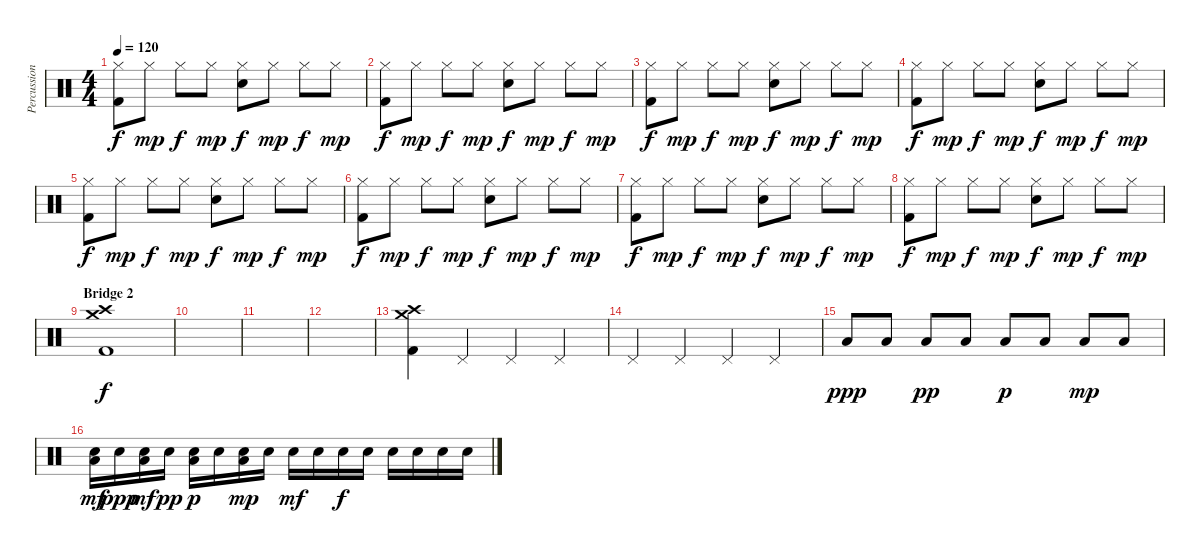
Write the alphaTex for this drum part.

\track ("Percussion" "Percussion") {instrument percussion}
\staff {score}
\articulation defaults
\ts (4 4)
\tempo 120
\clef neutral
\ks c
("Kick (hit) 2" "Hi-Hat (closed)").8{dy f} "Hi-Hat (closed)".8{dy mp} "Hi-Hat (closed)".8{dy f} "Hi-Hat (closed)".8{dy mp} ("Snare (hit) 2" "Hi-Hat (closed)").8{dy f} "Hi-Hat (closed)".8{dy mp} "Hi-Hat (closed)".8{dy f} "Hi-Hat (closed)".8{dy mp} |
("Kick (hit) 2" "Hi-Hat (closed)").8{dy f} "Hi-Hat (closed)".8{dy mp} "Hi-Hat (closed)".8{dy f} "Hi-Hat (closed)".8{dy mp} ("Snare (hit) 2" "Hi-Hat (closed)").8{dy f} "Hi-Hat (closed)".8{dy mp} "Hi-Hat (closed)".8{dy f} "Hi-Hat (closed)".8{dy mp} |
("Kick (hit) 2" "Hi-Hat (closed)").8{dy f} "Hi-Hat (closed)".8{dy mp} "Hi-Hat (closed)".8{dy f} "Hi-Hat (closed)".8{dy mp} ("Snare (hit) 2" "Hi-Hat (closed)").8{dy f} "Hi-Hat (closed)".8{dy mp} "Hi-Hat (closed)".8{dy f} "Hi-Hat (closed)".8{dy mp} |
("Kick (hit) 2" "Hi-Hat (closed)").8{dy f} "Hi-Hat (closed)".8{dy mp} "Hi-Hat (closed)".8{dy f} "Hi-Hat (closed)".8{dy mp} ("Snare (hit) 2" "Hi-Hat (closed)").8{dy f} "Hi-Hat (closed)".8{dy mp} "Hi-Hat (closed)".8{dy f} "Hi-Hat (closed)".8{dy mp} |
("Kick (hit) 2" "Hi-Hat (closed)").8{dy f} "Hi-Hat (closed)".8{dy mp} "Hi-Hat (closed)".8{dy f} "Hi-Hat (closed)".8{dy mp} ("Snare (hit) 2" "Hi-Hat (closed)").8{dy f} "Hi-Hat (closed)".8{dy mp} "Hi-Hat (closed)".8{dy f} "Hi-Hat (closed)".8{dy mp} |
("Kick (hit) 2" "Hi-Hat (closed)").8{dy f} "Hi-Hat (closed)".8{dy mp} "Hi-Hat (closed)".8{dy f} "Hi-Hat (closed)".8{dy mp} ("Snare (hit) 2" "Hi-Hat (closed)").8{dy f} "Hi-Hat (closed)".8{dy mp} "Hi-Hat (closed)".8{dy f} "Hi-Hat (closed)".8{dy mp} |
("Kick (hit) 2" "Hi-Hat (closed)").8{dy f} "Hi-Hat (closed)".8{dy mp} "Hi-Hat (closed)".8{dy f} "Hi-Hat (closed)".8{dy mp} ("Snare (hit) 2" "Hi-Hat (closed)").8{dy f} "Hi-Hat (closed)".8{dy mp} "Hi-Hat (closed)".8{dy f} "Hi-Hat (closed)".8{dy mp} |
("Kick (hit) 2" "Hi-Hat (closed)").8{dy f} "Hi-Hat (closed)".8{dy mp} "Hi-Hat (closed)".8{dy f} "Hi-Hat (closed)".8{dy mp} ("Snare (hit) 2" "Hi-Hat (closed)").8{dy f} "Hi-Hat (closed)".8{dy mp} "Hi-Hat (closed)".8{dy f} "Hi-Hat (closed)".8{dy mp} |
\section ("" "Bridge 2")
("Kick (hit) 2" "Crash medium (hit)" "Crash high (hit)").1{dy f} |
|
|
|
("Kick (hit) 2" "Crash medium (hit)" "Crash high (hit)").4 "Pedal Hi-Hat (hit)".4 "Pedal Hi-Hat (hit)".4 "Pedal Hi-Hat (hit)".4 |
"Pedal Hi-Hat (hit)".4 "Pedal Hi-Hat (hit)".4 "Pedal Hi-Hat (hit)".4 "Pedal Hi-Hat (hit)".4 |
"Low Tom (hit)".8{dy ppp} "Low Tom (hit)".8 "Low Tom (hit)".8{dy pp} "Low Tom (hit)".8 "Low Tom (hit)".8{dy p} "Low Tom (hit)".8 "Low Tom (hit)".8{dy mp} "Low Tom (hit)".8 |
("Snare (hit) 2" "Low Tom (hit)").16{dy mf} "Snare (hit) 2".16{dy ppp} ("Snare (hit) 2" "Low Tom (hit)").16{dy mf} "Snare (hit) 2".16{dy pp} ("Snare (hit) 2" "Low Tom (hit)").16{dy p} "Snare (hit) 2".16 ("Snare (hit) 2" "Low Tom (hit)").16{dy mp} "Snare (hit) 2".16 "Snare (hit) 2".16{dy mf} "Snare (hit) 2".16 "Snare (hit) 2".16{dy f} "Snare (hit) 2".16 "Snare (hit) 2".16 "Snare (hit) 2".16 "Snare (hit) 2".16 "Snare (hit) 2".16
